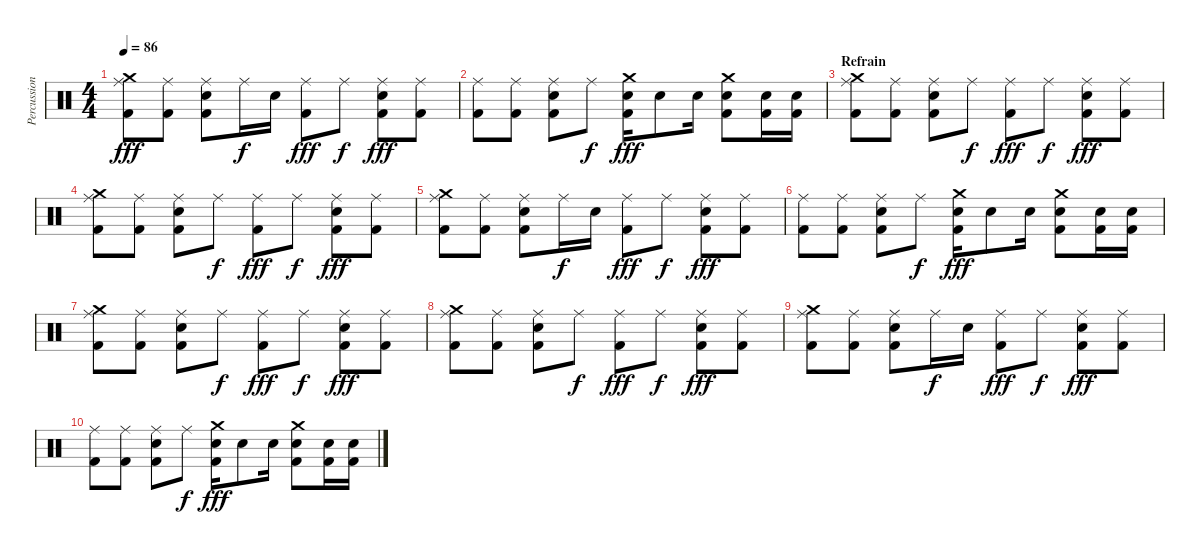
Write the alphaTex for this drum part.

\track ("Percussions" "Percussion") {instrument percussion}
\staff {score}
\articulation defaults
\ts (4 4)
\tempo 86
\clef neutral
\ks c
("Ride (middle)" "Crash medium (hit)" "Kick (hit) 2").8{dy fff} ("Ride (middle)" "Kick (hit) 2").8 ("Ride (middle)" "Snare (hit) 2" "Kick (hit) 2").8 "Ride (middle)".16{dy f} "Snare (hit) 2".16 ("Ride (middle)" "Kick (hit) 2").8{dy fff} "Ride (middle)".8{dy f} ("Ride (middle)" "Snare (hit) 2" "Kick (hit) 2").8{dy fff} ("Ride (middle)" "Kick (hit) 2").8 |
("Ride (middle)" "Kick (hit) 2").8 ("Ride (middle)" "Kick (hit) 2").8 ("Ride (middle)" "Snare (hit) 2" "Kick (hit) 2").8 "Ride (middle)".8{dy f} ("Crash medium (hit)" "Snare (hit) 2" "Kick (hit) 2").16{dy fff} "Snare (hit) 2".8 "Snare (hit) 2".16 ("Crash medium (hit)" "Snare (hit) 2" "Kick (hit) 2").8 ("Snare (hit) 2" "Kick (hit) 2").16 ("Snare (hit) 2" "Kick (hit) 2").16 |
\section ("" "Refrain")
("Ride (middle)" "Crash medium (hit)" "Kick (hit) 2").8 ("Ride (middle)" "Kick (hit) 2").8 ("Ride (middle)" "Snare (hit) 2" "Kick (hit) 2").8 "Ride (middle)".8{dy f} ("Ride (middle)" "Kick (hit) 2").8{dy fff} "Ride (middle)".8{dy f} ("Ride (middle)" "Snare (hit) 2" "Kick (hit) 2").8{dy fff} ("Ride (middle)" "Kick (hit) 2").8 |
("Ride (middle)" "Crash medium (hit)" "Kick (hit) 2").8 ("Ride (middle)" "Kick (hit) 2").8 ("Ride (middle)" "Snare (hit) 2" "Kick (hit) 2").8 "Ride (middle)".8{dy f} ("Ride (middle)" "Kick (hit) 2").8{dy fff} "Ride (middle)".8{dy f} ("Ride (middle)" "Snare (hit) 2" "Kick (hit) 2").8{dy fff} ("Ride (middle)" "Kick (hit) 2").8 |
("Ride (middle)" "Crash medium (hit)" "Kick (hit) 2").8 ("Ride (middle)" "Kick (hit) 2").8 ("Ride (middle)" "Snare (hit) 2" "Kick (hit) 2").8 "Ride (middle)".16{dy f} "Snare (hit) 2".16 ("Ride (middle)" "Kick (hit) 2").8{dy fff} "Ride (middle)".8{dy f} ("Ride (middle)" "Snare (hit) 2" "Kick (hit) 2").8{dy fff} ("Ride (middle)" "Kick (hit) 2").8 |
("Ride (middle)" "Kick (hit) 2").8 ("Ride (middle)" "Kick (hit) 2").8 ("Ride (middle)" "Snare (hit) 2" "Kick (hit) 2").8 "Ride (middle)".8{dy f} ("Crash medium (hit)" "Snare (hit) 2" "Kick (hit) 2").16{dy fff} "Snare (hit) 2".8 "Snare (hit) 2".16 ("Crash medium (hit)" "Snare (hit) 2" "Kick (hit) 2").8 ("Snare (hit) 2" "Kick (hit) 2").16 ("Snare (hit) 2" "Kick (hit) 2").16 |
("Ride (middle)" "Crash medium (hit)" "Kick (hit) 2").8{volume 0} ("Ride (middle)" "Kick (hit) 2").8 ("Ride (middle)" "Snare (hit) 2" "Kick (hit) 2").8 "Ride (middle)".8{dy f} ("Ride (middle)" "Kick (hit) 2").8{dy fff} "Ride (middle)".8{dy f} ("Ride (middle)" "Snare (hit) 2" "Kick (hit) 2").8{dy fff} ("Ride (middle)" "Kick (hit) 2").8 |
("Ride (middle)" "Crash medium (hit)" "Kick (hit) 2").8 ("Ride (middle)" "Kick (hit) 2").8 ("Ride (middle)" "Snare (hit) 2" "Kick (hit) 2").8 "Ride (middle)".8{dy f} ("Ride (middle)" "Kick (hit) 2").8{dy fff} "Ride (middle)".8{dy f} ("Ride (middle)" "Snare (hit) 2" "Kick (hit) 2").8{dy fff} ("Ride (middle)" "Kick (hit) 2").8 |
("Ride (middle)" "Crash medium (hit)" "Kick (hit) 2").8 ("Ride (middle)" "Kick (hit) 2").8 ("Ride (middle)" "Snare (hit) 2" "Kick (hit) 2").8 "Ride (middle)".16{dy f} "Snare (hit) 2".16 ("Ride (middle)" "Kick (hit) 2").8{dy fff} "Ride (middle)".8{dy f} ("Ride (middle)" "Snare (hit) 2" "Kick (hit) 2").8{dy fff} ("Ride (middle)" "Kick (hit) 2").8 |
("Ride (middle)" "Kick (hit) 2").8 ("Ride (middle)" "Kick (hit) 2").8 ("Ride (middle)" "Snare (hit) 2" "Kick (hit) 2").8 "Ride (middle)".8{dy f} ("Crash medium (hit)" "Snare (hit) 2" "Kick (hit) 2").16{dy fff} "Snare (hit) 2".8 "Snare (hit) 2".16 ("Crash medium (hit)" "Snare (hit) 2" "Kick (hit) 2").8 ("Snare (hit) 2" "Kick (hit) 2").16 ("Snare (hit) 2" "Kick (hit) 2").16
